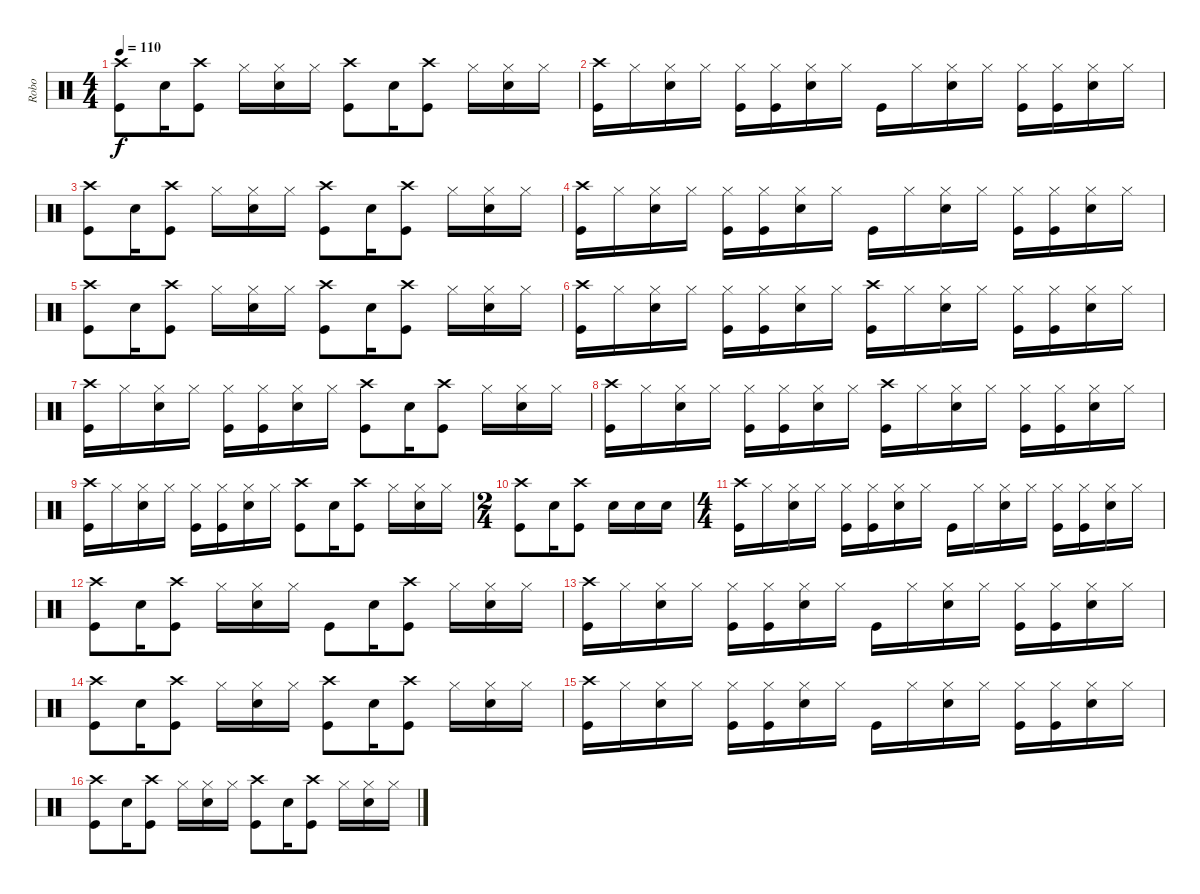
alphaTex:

\track ("Robo" "Robo") {instrument percussion}
\staff {score}
\articulation defaults
\ts (4 4)
\tempo 110
\clef neutral
\ks c
("Crash high (hit)" "Kick (hit)").8{dy f} "Snare (hit) 2".16 ("Crash high (hit)" "Kick (hit)").8 "Hi-Hat (closed)".16 ("Hi-Hat (closed)" "Snare (hit) 2").16 "Hi-Hat (closed)".16 ("Crash high (hit)" "Kick (hit)").8 "Snare (hit) 2".16 ("Crash high (hit)" "Kick (hit)").8 "Hi-Hat (closed)".16 ("Hi-Hat (closed)" "Snare (hit) 2").16 "Hi-Hat (closed)".16 |
("Crash high (hit)" "Kick (hit)").16 "Hi-Hat (closed)".16 ("Hi-Hat (closed)" "Snare (hit) 2").16 "Hi-Hat (closed)".16 ("Hi-Hat (closed)" "Kick (hit)").16 ("Hi-Hat (closed)" "Kick (hit)").16 ("Hi-Hat (closed)" "Snare (hit) 2").16 "Hi-Hat (closed)".16 "Kick (hit)".16 "Hi-Hat (closed)".16 ("Hi-Hat (closed)" "Snare (hit) 2").16 "Hi-Hat (closed)".16 ("Hi-Hat (closed)" "Kick (hit)").16 ("Hi-Hat (closed)" "Kick (hit)").16 ("Hi-Hat (closed)" "Snare (hit) 2").16 "Hi-Hat (closed)".16 |
("Crash high (hit)" "Kick (hit)").8 "Snare (hit) 2".16 ("Crash high (hit)" "Kick (hit)").8 "Hi-Hat (closed)".16 ("Hi-Hat (closed)" "Snare (hit) 2").16 "Hi-Hat (closed)".16 ("Crash high (hit)" "Kick (hit)").8 "Snare (hit) 2".16 ("Crash high (hit)" "Kick (hit)").8 "Hi-Hat (closed)".16 ("Hi-Hat (closed)" "Snare (hit) 2").16 "Hi-Hat (closed)".16 |
("Crash high (hit)" "Kick (hit)").16 "Hi-Hat (closed)".16 ("Hi-Hat (closed)" "Snare (hit) 2").16 "Hi-Hat (closed)".16 ("Hi-Hat (closed)" "Kick (hit)").16 ("Hi-Hat (closed)" "Kick (hit)").16 ("Hi-Hat (closed)" "Snare (hit) 2").16 "Hi-Hat (closed)".16 "Kick (hit)".16 "Hi-Hat (closed)".16 ("Hi-Hat (closed)" "Snare (hit) 2").16 "Hi-Hat (closed)".16 ("Hi-Hat (closed)" "Kick (hit)").16 ("Hi-Hat (closed)" "Kick (hit)").16 ("Hi-Hat (closed)" "Snare (hit) 2").16 "Hi-Hat (closed)".16 |
("Crash high (hit)" "Kick (hit)").8 "Snare (hit) 2".16 ("Crash high (hit)" "Kick (hit)").8 "Hi-Hat (closed)".16 ("Hi-Hat (closed)" "Snare (hit) 2").16 "Hi-Hat (closed)".16 ("Crash high (hit)" "Kick (hit)").8 "Snare (hit) 2".16 ("Crash high (hit)" "Kick (hit)").8 "Hi-Hat (closed)".16 ("Hi-Hat (closed)" "Snare (hit) 2").16 "Hi-Hat (closed)".16 |
("Crash high (hit)" "Kick (hit)").16 "Hi-Hat (closed)".16 ("Hi-Hat (closed)" "Snare (hit) 2").16 "Hi-Hat (closed)".16 ("Hi-Hat (closed)" "Kick (hit)").16 ("Hi-Hat (closed)" "Kick (hit)").16 ("Hi-Hat (closed)" "Snare (hit) 2").16 "Hi-Hat (closed)".16 ("Crash high (hit)" "Kick (hit)").16 "Hi-Hat (closed)".16 ("Hi-Hat (closed)" "Snare (hit) 2").16 "Hi-Hat (closed)".16 ("Hi-Hat (closed)" "Kick (hit)").16 ("Hi-Hat (closed)" "Kick (hit)").16 ("Hi-Hat (closed)" "Snare (hit) 2").16 "Hi-Hat (closed)".16 |
("Crash high (hit)" "Kick (hit)").16 "Hi-Hat (closed)".16 ("Hi-Hat (closed)" "Snare (hit) 2").16 "Hi-Hat (closed)".16 ("Hi-Hat (closed)" "Kick (hit)").16 ("Hi-Hat (closed)" "Kick (hit)").16 ("Hi-Hat (closed)" "Snare (hit) 2").16 "Hi-Hat (closed)".16 ("Crash high (hit)" "Kick (hit)").8 "Snare (hit) 2".16 ("Crash high (hit)" "Kick (hit)").8 "Hi-Hat (closed)".16 ("Hi-Hat (closed)" "Snare (hit) 2").16 "Hi-Hat (closed)".16 |
("Crash high (hit)" "Kick (hit)").16 "Hi-Hat (closed)".16 ("Hi-Hat (closed)" "Snare (hit) 2").16 "Hi-Hat (closed)".16 ("Hi-Hat (closed)" "Kick (hit)").16 ("Hi-Hat (closed)" "Kick (hit)").16 ("Hi-Hat (closed)" "Snare (hit) 2").16 "Hi-Hat (closed)".16 ("Crash high (hit)" "Kick (hit)").16 "Hi-Hat (closed)".16 ("Hi-Hat (closed)" "Snare (hit) 2").16 "Hi-Hat (closed)".16 ("Hi-Hat (closed)" "Kick (hit)").16 ("Hi-Hat (closed)" "Kick (hit)").16 ("Hi-Hat (closed)" "Snare (hit) 2").16 "Hi-Hat (closed)".16 |
("Crash high (hit)" "Kick (hit)").16 "Hi-Hat (closed)".16 ("Hi-Hat (closed)" "Snare (hit) 2").16 "Hi-Hat (closed)".16 ("Hi-Hat (closed)" "Kick (hit)").16 ("Hi-Hat (closed)" "Kick (hit)").16 ("Hi-Hat (closed)" "Snare (hit) 2").16 "Hi-Hat (closed)".16 ("Crash high (hit)" "Kick (hit)").8 "Snare (hit) 2".16 ("Crash high (hit)" "Kick (hit)").8 "Hi-Hat (closed)".16 ("Hi-Hat (closed)" "Snare (hit) 2").16 "Hi-Hat (closed)".16 |
\ts (2 4)
("Crash high (hit)" "Kick (hit)").8 "Snare (hit) 2".16 ("Crash high (hit)" "Kick (hit)").8 "Snare (hit) 2".16 "Snare (hit) 2".16 "Snare (hit) 2".16 |
\ts (4 4)
("Crash high (hit)" "Kick (hit)").16 "Hi-Hat (closed)".16 ("Hi-Hat (closed)" "Snare (hit) 2").16 "Hi-Hat (closed)".16 ("Hi-Hat (closed)" "Kick (hit)").16 ("Hi-Hat (closed)" "Kick (hit)").16 ("Hi-Hat (closed)" "Snare (hit) 2").16 "Hi-Hat (closed)".16 "Kick (hit)".16 "Hi-Hat (closed)".16 ("Hi-Hat (closed)" "Snare (hit) 2").16 "Hi-Hat (closed)".16 ("Hi-Hat (closed)" "Kick (hit)").16 ("Hi-Hat (closed)" "Kick (hit)").16 ("Hi-Hat (closed)" "Snare (hit) 2").16 "Hi-Hat (closed)".16 |
("Crash high (hit)" "Kick (hit)").8 "Snare (hit) 2".16 ("Crash high (hit)" "Kick (hit)").8 "Hi-Hat (closed)".16 ("Hi-Hat (closed)" "Snare (hit) 2").16 "Hi-Hat (closed)".16 "Kick (hit)".8 "Snare (hit) 2".16 ("Crash high (hit)" "Kick (hit)").8 "Hi-Hat (closed)".16 ("Hi-Hat (closed)" "Snare (hit) 2").16 "Hi-Hat (closed)".16 |
("Crash high (hit)" "Kick (hit)").16 "Hi-Hat (closed)".16 ("Hi-Hat (closed)" "Snare (hit) 2").16 "Hi-Hat (closed)".16 ("Hi-Hat (closed)" "Kick (hit)").16 ("Hi-Hat (closed)" "Kick (hit)").16 ("Hi-Hat (closed)" "Snare (hit) 2").16 "Hi-Hat (closed)".16 "Kick (hit)".16 "Hi-Hat (closed)".16 ("Hi-Hat (closed)" "Snare (hit) 2").16 "Hi-Hat (closed)".16 ("Hi-Hat (closed)" "Kick (hit)").16 ("Hi-Hat (closed)" "Kick (hit)").16 ("Hi-Hat (closed)" "Snare (hit) 2").16 "Hi-Hat (closed)".16 |
("Crash high (hit)" "Kick (hit)").8 "Snare (hit) 2".16 ("Crash high (hit)" "Kick (hit)").8 "Hi-Hat (closed)".16 ("Hi-Hat (closed)" "Snare (hit) 2").16 "Hi-Hat (closed)".16 ("Crash high (hit)" "Kick (hit)").8 "Snare (hit) 2".16 ("Crash high (hit)" "Kick (hit)").8 "Hi-Hat (closed)".16 ("Hi-Hat (closed)" "Snare (hit) 2").16 "Hi-Hat (closed)".16 |
("Crash high (hit)" "Kick (hit)").16 "Hi-Hat (closed)".16 ("Hi-Hat (closed)" "Snare (hit) 2").16 "Hi-Hat (closed)".16 ("Hi-Hat (closed)" "Kick (hit)").16 ("Hi-Hat (closed)" "Kick (hit)").16 ("Hi-Hat (closed)" "Snare (hit) 2").16 "Hi-Hat (closed)".16 "Kick (hit)".16 "Hi-Hat (closed)".16 ("Hi-Hat (closed)" "Snare (hit) 2").16 "Hi-Hat (closed)".16 ("Hi-Hat (closed)" "Kick (hit)").16 ("Hi-Hat (closed)" "Kick (hit)").16 ("Hi-Hat (closed)" "Snare (hit) 2").16 "Hi-Hat (closed)".16 |
("Crash high (hit)" "Kick (hit)").8 "Snare (hit) 2".16 ("Crash high (hit)" "Kick (hit)").8 "Hi-Hat (closed)".16 ("Hi-Hat (closed)" "Snare (hit) 2").16 "Hi-Hat (closed)".16 ("Crash high (hit)" "Kick (hit)").8 "Snare (hit) 2".16 ("Crash high (hit)" "Kick (hit)").8 "Hi-Hat (closed)".16 ("Hi-Hat (closed)" "Snare (hit) 2").16 "Hi-Hat (closed)".16
